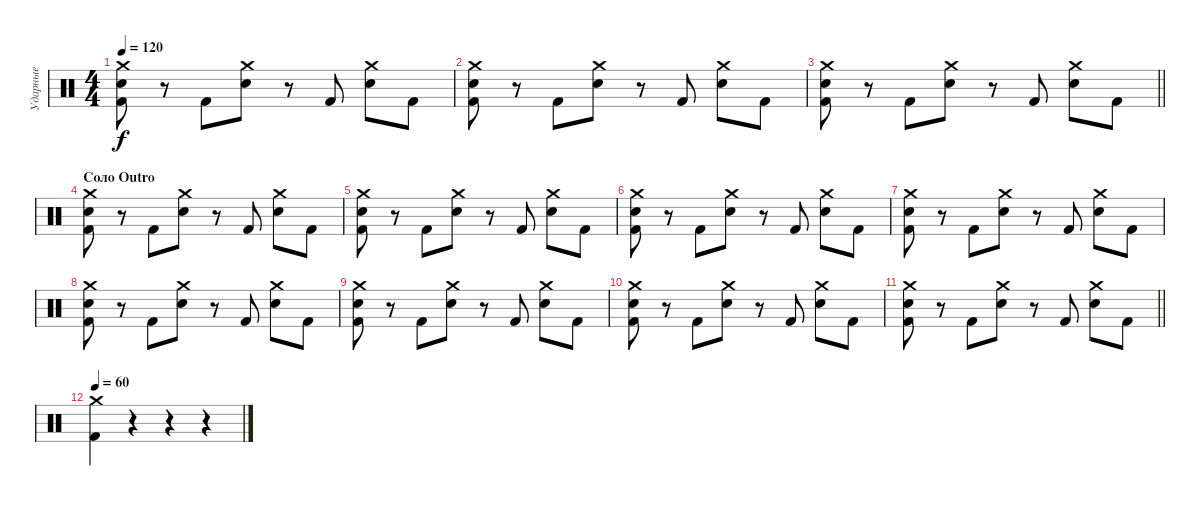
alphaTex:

\track ("Ударные" "Ударные") {instrument percussion}
\staff {score}
\articulation defaults
\ts (4 4)
\tempo 120
\clef neutral
\ks c
("Crash medium (hit)" "Snare (hit) 2" "Kick (hit) 2").8{dy f} r.8 "Kick (hit) 2".8 ("Crash medium (hit)" "Snare (hit) 2").8 r.8 "Kick (hit) 2".8 ("Crash medium (hit)" "Snare (hit) 2").8 "Kick (hit) 2".8 |
("Crash medium (hit)" "Snare (hit) 2" "Kick (hit) 2").8 r.8 "Kick (hit) 2".8 ("Crash medium (hit)" "Snare (hit) 2").8 r.8 "Kick (hit) 2".8 ("Crash medium (hit)" "Snare (hit) 2").8 "Kick (hit) 2".8 |
\barLineRight lightlight
("Crash medium (hit)" "Snare (hit) 2" "Kick (hit) 2").8 r.8 "Kick (hit) 2".8 ("Crash medium (hit)" "Snare (hit) 2").8 r.8 "Kick (hit) 2".8 ("Crash medium (hit)" "Snare (hit) 2").8 "Kick (hit) 2".8 |
\section ("" "Соло Outro")
("Crash medium (hit)" "Snare (hit) 2" "Kick (hit) 2").8 r.8 "Kick (hit) 2".8 ("Crash medium (hit)" "Snare (hit) 2").8 r.8 "Kick (hit) 2".8 ("Crash medium (hit)" "Snare (hit) 2").8 "Kick (hit) 2".8 |
("Crash medium (hit)" "Snare (hit) 2" "Kick (hit) 2").8 r.8 "Kick (hit) 2".8 ("Crash medium (hit)" "Snare (hit) 2").8 r.8 "Kick (hit) 2".8 ("Crash medium (hit)" "Snare (hit) 2").8 "Kick (hit) 2".8 |
("Crash medium (hit)" "Snare (hit) 2" "Kick (hit) 2").8 r.8 "Kick (hit) 2".8 ("Crash medium (hit)" "Snare (hit) 2").8 r.8 "Kick (hit) 2".8 ("Crash medium (hit)" "Snare (hit) 2").8 "Kick (hit) 2".8 |
("Crash medium (hit)" "Snare (hit) 2" "Kick (hit) 2").8 r.8 "Kick (hit) 2".8 ("Crash medium (hit)" "Snare (hit) 2").8 r.8 "Kick (hit) 2".8 ("Crash medium (hit)" "Snare (hit) 2").8 "Kick (hit) 2".8 |
("Crash medium (hit)" "Snare (hit) 2" "Kick (hit) 2").8 r.8 "Kick (hit) 2".8 ("Crash medium (hit)" "Snare (hit) 2").8 r.8 "Kick (hit) 2".8 ("Crash medium (hit)" "Snare (hit) 2").8 "Kick (hit) 2".8 |
("Crash medium (hit)" "Snare (hit) 2" "Kick (hit) 2").8 r.8 "Kick (hit) 2".8 ("Crash medium (hit)" "Snare (hit) 2").8 r.8 "Kick (hit) 2".8 ("Crash medium (hit)" "Snare (hit) 2").8 "Kick (hit) 2".8 |
("Crash medium (hit)" "Snare (hit) 2" "Kick (hit) 2").8 r.8 "Kick (hit) 2".8 ("Crash medium (hit)" "Snare (hit) 2").8 r.8 "Kick (hit) 2".8 ("Crash medium (hit)" "Snare (hit) 2").8 "Kick (hit) 2".8 |
\barLineRight lightlight
("Crash medium (hit)" "Snare (hit) 2" "Kick (hit) 2").8 r.8 "Kick (hit) 2".8 ("Crash medium (hit)" "Snare (hit) 2").8 r.8 "Kick (hit) 2".8 ("Crash medium (hit)" "Snare (hit) 2").8 "Kick (hit) 2".8 |
\tempo 60
("Crash medium (hit)" "Kick (hit) 2").4 r.4 r.4 r.4
